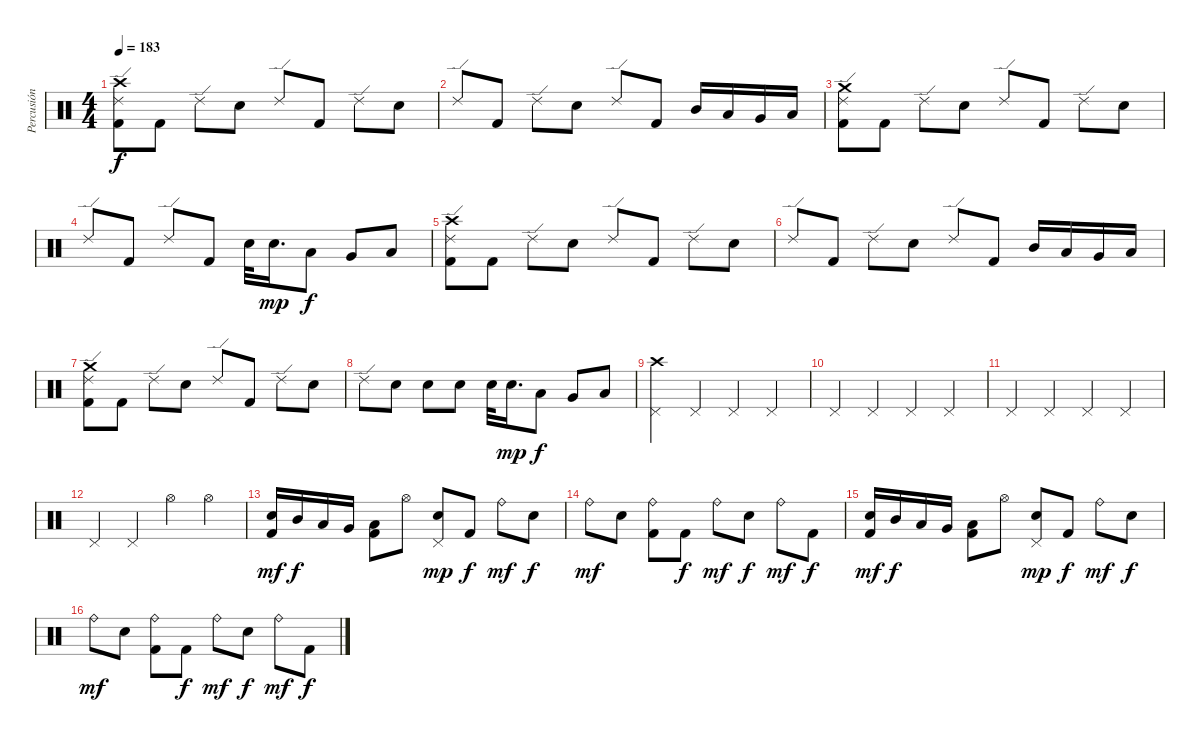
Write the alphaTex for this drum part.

\track ("Percusión" "Percusión") {instrument percussion}
\staff {score}
\articulation defaults
\ts (4 4)
\tempo 183
\clef neutral
\ks c
("Crash high (hit)" "Ride (edge) 2" "Kick (hit) 2").8{dy f} "Kick (hit) 2".8 "Ride (edge) 2".8 "Electric Snare (hit)".8 "Ride (edge) 2".8 "Kick (hit) 2".8 "Ride (edge) 2".8 "Electric Snare (hit)".8 |
"Ride (edge) 2".8 "Kick (hit) 2".8 "Ride (edge) 2".8 "Electric Snare (hit)".8 "Ride (edge) 2".8 "Kick (hit) 2".8 "Mid Tom (hit)".16 "Low Tom (hit)".16 "Very Low Tom (hit)".16 "Low Floor Tom (hit)".16 |
("Crash medium (hit)" "Ride (edge) 2" "Kick (hit) 2").8 "Kick (hit) 2".8 "Ride (edge) 2".8 "Electric Snare (hit)".8 "Ride (edge) 2".8 "Kick (hit) 2".8 "Ride (edge) 2".8 "Electric Snare (hit)".8 |
"Ride (edge) 2".8 "Kick (hit) 2".8 "Ride (edge) 2".8 "Kick (hit) 2".8 "Electric Snare (hit)".32 "Electric Snare (hit)".16{d dy mp} "Low Tom (hit)".8{dy f} "Very Low Tom (hit)".8 "Low Floor Tom (hit)".8 |
("Crash high (hit)" "Ride (edge) 2" "Kick (hit) 2").8 "Kick (hit) 2".8 "Ride (edge) 2".8 "Electric Snare (hit)".8 "Ride (edge) 2".8 "Kick (hit) 2".8 "Ride (edge) 2".8 "Electric Snare (hit)".8 |
"Ride (edge) 2".8 "Kick (hit) 2".8 "Ride (edge) 2".8 "Electric Snare (hit)".8 "Ride (edge) 2".8 "Kick (hit) 2".8 "Mid Tom (hit)".16 "Low Tom (hit)".16 "Very Low Tom (hit)".16 "Low Floor Tom (hit)".16 |
("Crash medium (hit)" "Ride (edge) 2" "Kick (hit) 2").8 "Kick (hit) 2".8 "Ride (edge) 2".8 "Electric Snare (hit)".8 "Ride (edge) 2".8 "Kick (hit) 2".8 "Ride (edge) 2".8 "Electric Snare (hit)".8 |
"Ride (edge) 2".8 "Electric Snare (hit)".8 "Electric Snare (hit)".8 "Electric Snare (hit)".8 "Electric Snare (hit)".32 "Electric Snare (hit)".16{d dy mp} "Low Tom (hit)".8{dy f} "Very Low Tom (hit)".8 "Low Floor Tom (hit)".8 |
("Crash high (hit)" "Pedal Hi-Hat (hit)").4 "Pedal Hi-Hat (hit)".4 "Pedal Hi-Hat (hit)".4 "Pedal Hi-Hat (hit)".4 |
"Pedal Hi-Hat (hit)".4 "Pedal Hi-Hat (hit)".4 "Pedal Hi-Hat (hit)".4 "Pedal Hi-Hat (hit)".4 |
"Pedal Hi-Hat (hit)".4 "Pedal Hi-Hat (hit)".4 "Pedal Hi-Hat (hit)".4 "Pedal Hi-Hat (hit)".4 |
"Pedal Hi-Hat (hit)".4 "Pedal Hi-Hat (hit)".4 "Hi-Hat (open)".4 "Hi-Hat (open)".4 |
("Electric Snare (hit)" "Kick (hit) 2").16{dy mf} "Mid Tom (hit)".16{dy f} "Low Tom (hit)".16 "Very Low Tom (hit)".16 ("Low Floor Tom (hit)" "Kick (hit) 2").8 "Hi-Hat (open)".8 ("Pedal Hi-Hat (hit)" "Electric Snare (hit)").8{dy mp} "Kick (hit) 2".8{dy f} "Ride (bell)".8{dy mf} "Electric Snare (hit)".8{dy f} |
"Ride (bell)".8{dy mf} "Electric Snare (hit)".8 ("Ride (bell)" "Kick (hit) 2").8 "Kick (hit) 2".8{dy f} "Ride (bell)".8{dy mf} "Electric Snare (hit)".8{dy f} "Ride (bell)".8{dy mf} "Kick (hit) 2".8{dy f} |
("Electric Snare (hit)" "Kick (hit) 2").16{dy mf} "Mid Tom (hit)".16{dy f} "Low Tom (hit)".16 "Very Low Tom (hit)".16 ("Low Floor Tom (hit)" "Kick (hit) 2").8 "Hi-Hat (open)".8 ("Pedal Hi-Hat (hit)" "Electric Snare (hit)").8{dy mp} "Kick (hit) 2".8{dy f} "Ride (bell)".8{dy mf} "Electric Snare (hit)".8{dy f} |
"Ride (bell)".8{dy mf} "Electric Snare (hit)".8 ("Ride (bell)" "Kick (hit) 2").8 "Kick (hit) 2".8{dy f} "Ride (bell)".8{dy mf} "Electric Snare (hit)".8{dy f} "Ride (bell)".8{dy mf} "Kick (hit) 2".8{dy f}
